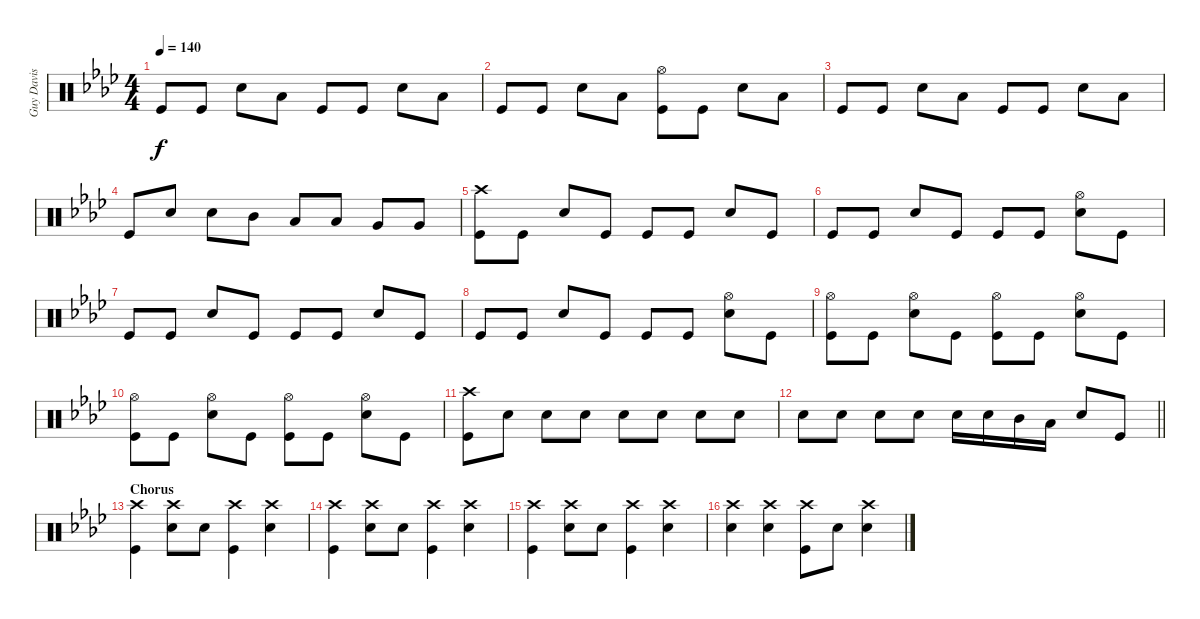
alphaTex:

\track ("Guy Davis" "Guy Davis") {instrument percussion}
\staff {score}
\articulation defaults
\ts (4 4)
\tempo 140
\clef neutral
\ks fminor "Kick (hit)".8{dy f} "Kick (hit)".8 "Snare (hit) 2".8 "Low Tom (hit)".8 "Kick (hit)".8 "Kick (hit)".8 "Snare (hit) 2".8 "Low Tom (hit)".8
|
"Kick (hit)".8 "Kick (hit)".8 "Snare (hit) 2".8 "Low Tom (hit)".8 ("Hi-Hat (open)" "Kick (hit)").8 "Kick (hit)".8 "Snare (hit) 2".8 "Low Tom (hit)".8 |
"Kick (hit)".8 "Kick (hit)".8 "Snare (hit) 2".8 "Low Tom (hit)".8 "Kick (hit)".8 "Kick (hit)".8 "Snare (hit) 2".8 "Low Tom (hit)".8 |
"Kick (hit)".8 "Snare (hit) 2".8 "Snare (hit) 2".8 "Mid Tom (hit)".8 "Low Tom (hit)".8 "Low Tom (hit)".8 "Very Low Tom (hit)".8 "Very Low Tom (hit)".8 |
("Crash high (hit)" "Kick (hit)").8 "Kick (hit)".8 "Snare (hit) 2".8 "Kick (hit)".8 "Kick (hit)".8 "Kick (hit)".8 "Snare (hit) 2".8 "Kick (hit)".8 |
"Kick (hit)".8 "Kick (hit)".8 "Snare (hit) 2".8 "Kick (hit)".8 "Kick (hit)".8 "Kick (hit)".8 ("Hi-Hat (open)" "Snare (hit) 2").8 "Kick (hit)".8 |
"Kick (hit)".8 "Kick (hit)".8 "Snare (hit) 2".8 "Kick (hit)".8 "Kick (hit)".8 "Kick (hit)".8 "Snare (hit) 2".8 "Kick (hit)".8 |
"Kick (hit)".8 "Kick (hit)".8 "Snare (hit) 2".8 "Kick (hit)".8 "Kick (hit)".8 "Kick (hit)".8 ("Hi-Hat (open)" "Snare (hit) 2").8 "Kick (hit)".8 |
("Hi-Hat (open)" "Kick (hit)").8 "Kick (hit)".8 ("Hi-Hat (open)" "Snare (hit) 2").8 "Kick (hit)".8 ("Hi-Hat (open)" "Kick (hit)").8 "Kick (hit)".8 ("Hi-Hat (open)" "Snare (hit) 2").8 "Kick (hit)".8 |
("Hi-Hat (open)" "Kick (hit)").8 "Kick (hit)".8 ("Hi-Hat (open)" "Snare (hit) 2").8 "Kick (hit)".8 ("Hi-Hat (open)" "Kick (hit)").8 "Kick (hit)".8 ("Hi-Hat (open)" "Snare (hit) 2").8 "Kick (hit)".8 |
("Crash high (hit)" "Kick (hit)").8 "Snare (hit) 2".8 "Snare (hit) 2".8 "Snare (hit) 2".8 "Snare (hit) 2".8 "Snare (hit) 2".8 "Snare (hit) 2".8 "Snare (hit) 2".8 |
\barLineRight lightlight "Snare (hit) 2".8 "Snare (hit) 2".8 "Snare (hit) 2".8 "Snare (hit) 2".8 "Snare (hit) 2".16 "Snare (hit) 2".16 "Mid Tom (hit)".16 "Low Tom (hit)".16 "Snare (hit) 2".8 "Kick (hit)".8
|
\section ("" "Chorus")
("Crash high (hit)" "Kick (hit)").4 ("Crash high (hit)" "Snare (hit) 2").8 "Snare (hit) 2".8 ("Crash high (hit)" "Kick (hit)").4 ("Crash high (hit)" "Snare (hit) 2").4 |
("Crash high (hit)" "Kick (hit)").4 ("Crash high (hit)" "Snare (hit) 2").8 "Snare (hit) 2".8 ("Crash high (hit)" "Kick (hit)").4 ("Crash high (hit)" "Snare (hit) 2").4 |
("Crash high (hit)" "Kick (hit)").4 ("Crash high (hit)" "Snare (hit) 2").8 "Snare (hit) 2".8 ("Crash high (hit)" "Kick (hit)").4 ("Crash high (hit)" "Snare (hit) 2").4 |
("Crash high (hit)" "Snare (hit) 2").4 ("Crash high (hit)" "Snare (hit) 2").4 ("Crash high (hit)" "Kick (hit)").8 "Snare (hit) 2".8 ("Crash high (hit)" "Snare (hit) 2").4
